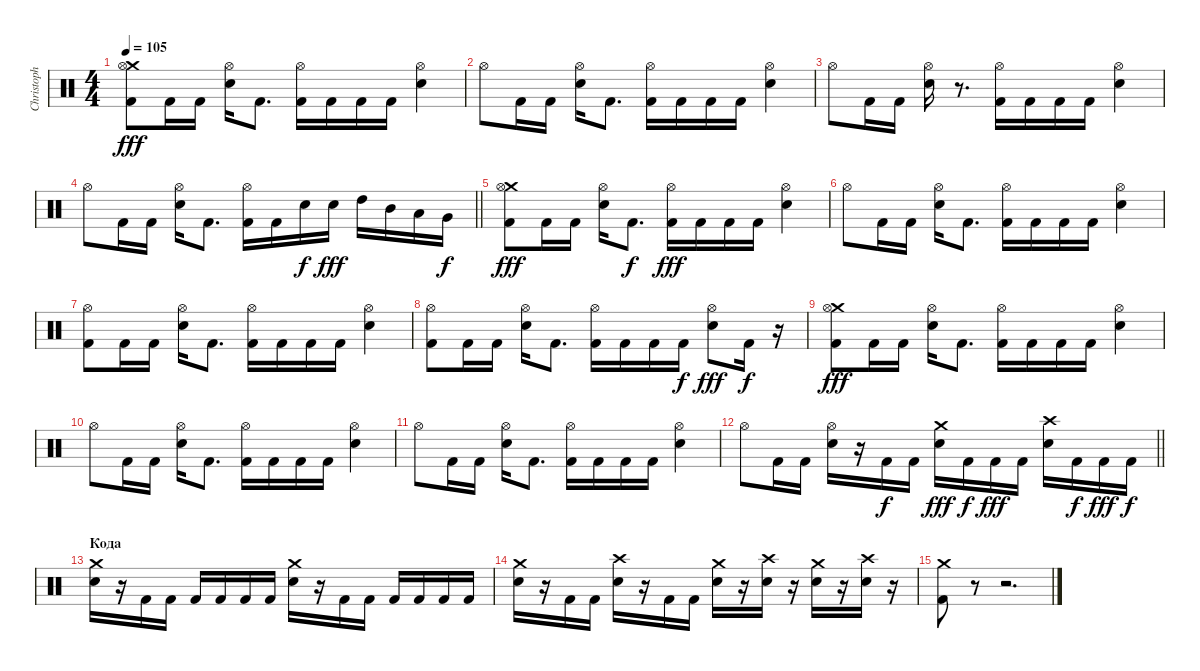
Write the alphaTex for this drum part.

\track ("Christoph Schneider" "Christoph ") {instrument percussion}
\staff {score}
\articulation defaults
\ts (4 4)
\tempo 105
\clef neutral
\ks c
("Crash medium (hit)" "Kick (hit) 2" "Hi-Hat (open)").8{dy fff} "Kick (hit) 2".16 "Kick (hit) 2".16 ("Hi-Hat (open)" "Electric Snare (hit)").16 "Kick (hit) 2".8{d} ("Hi-Hat (open)" "Kick (hit) 2").16 "Kick (hit) 2".16 "Kick (hit) 2".16 "Kick (hit) 2".16 ("Hi-Hat (open)" "Electric Snare (hit)").4 |
"Hi-Hat (open)".8 "Kick (hit) 2".16 "Kick (hit) 2".16 ("Hi-Hat (open)" "Electric Snare (hit)").16 "Kick (hit) 2".8{d} ("Hi-Hat (open)" "Kick (hit) 2").16 "Kick (hit) 2".16 "Kick (hit) 2".16 "Kick (hit) 2".16 ("Hi-Hat (open)" "Electric Snare (hit)").4 |
"Hi-Hat (open)".8 "Kick (hit) 2".16 "Kick (hit) 2".16 ("Hi-Hat (open)" "Electric Snare (hit)").16 r.8{d} ("Hi-Hat (open)" "Kick (hit) 2").16 "Kick (hit) 2".16 "Kick (hit) 2".16 "Kick (hit) 2".16 ("Hi-Hat (open)" "Electric Snare (hit)").4 |
\barLineRight lightlight "Hi-Hat (open)".8 "Kick (hit) 2".16 "Kick (hit) 2".16
("Hi-Hat (open)" "Electric Snare (hit)").16 "Kick (hit) 2".8{d} ("Hi-Hat (open)" "Kick (hit) 2").16 "Kick (hit) 2".16 "Electric Snare (hit)".16{dy f} "Electric Snare (hit)".16{dy fff} "High Tom (hit)".16 "Mid Tom (hit)".16 "Low Tom (hit)".16 "Very Low Tom (hit)".16{dy f} |
("Crash medium (hit)" "Kick (hit) 2" "Hi-Hat (open)").8{dy fff} "Kick (hit) 2".16 "Kick (hit) 2".16 ("Hi-Hat (open)" "Electric Snare (hit)").16 "Kick (hit) 2".8{d dy f} ("Hi-Hat (open)" "Kick (hit) 2").16{dy fff} "Kick (hit) 2".16 "Kick (hit) 2".16 "Kick (hit) 2".16 ("Hi-Hat (open)" "Electric Snare (hit)").4 |
"Hi-Hat (open)".8 "Kick (hit) 2".16 "Kick (hit) 2".16 ("Hi-Hat (open)" "Electric Snare (hit)").16 "Kick (hit) 2".8{d} ("Hi-Hat (open)" "Kick (hit) 2").16 "Kick (hit) 2".16 "Kick (hit) 2".16 "Kick (hit) 2".16 ("Hi-Hat (open)" "Electric Snare (hit)").4 |
("Kick (hit) 2" "Hi-Hat (open)").8 "Kick (hit) 2".16 "Kick (hit) 2".16 ("Hi-Hat (open)" "Electric Snare (hit)").16 "Kick (hit) 2".8{d} ("Hi-Hat (open)" "Kick (hit) 2").16 "Kick (hit) 2".16 "Kick (hit) 2".16 "Kick (hit) 2".16 ("Hi-Hat (open)" "Electric Snare (hit)").4 |
("Kick (hit) 2" "Hi-Hat (open)").8 "Kick (hit) 2".16 "Kick (hit) 2".16 ("Hi-Hat (open)" "Electric Snare (hit)").16 "Kick (hit) 2".8{d} ("Hi-Hat (open)" "Kick (hit) 2").16 "Kick (hit) 2".16 "Kick (hit) 2".16 "Kick (hit) 2".16{dy f} ("Hi-Hat (open)" "Electric Snare (hit)").8{dy fff} "Kick (hit) 2".16{dy f} r.16 |
("Crash medium (hit)" "Kick (hit) 2" "Hi-Hat (open)").8{dy fff} "Kick (hit) 2".16 "Kick (hit) 2".16 ("Hi-Hat (open)" "Electric Snare (hit)").16 "Kick (hit) 2".8{d} ("Hi-Hat (open)" "Kick (hit) 2").16 "Kick (hit) 2".16 "Kick (hit) 2".16 "Kick (hit) 2".16 ("Hi-Hat (open)" "Electric Snare (hit)").4 |
"Hi-Hat (open)".8 "Kick (hit) 2".16 "Kick (hit) 2".16 ("Hi-Hat (open)" "Electric Snare (hit)").16 "Kick (hit) 2".8{d} ("Hi-Hat (open)" "Kick (hit) 2").16 "Kick (hit) 2".16 "Kick (hit) 2".16 "Kick (hit) 2".16 ("Hi-Hat (open)" "Electric Snare (hit)").4 |
"Hi-Hat (open)".8 "Kick (hit) 2".16 "Kick (hit) 2".16 ("Hi-Hat (open)" "Electric Snare (hit)").16 "Kick (hit) 2".8{d} ("Hi-Hat (open)" "Kick (hit) 2").16 "Kick (hit) 2".16 "Kick (hit) 2".16 "Kick (hit) 2".16 ("Hi-Hat (open)" "Electric Snare (hit)").4 |
\barLineRight lightlight "Hi-Hat (open)".8 "Kick (hit) 2".16 "Kick (hit) 2".16
("Hi-Hat (open)" "Electric Snare (hit)").16 r.16 "Kick (hit) 2".16{dy f} "Kick (hit) 2".16 ("Crash medium (hit)" "Electric Snare (hit)").16{dy fff} "Kick (hit) 2".16{dy f} "Kick (hit) 2".16{dy fff} "Kick (hit) 2".16 ("Crash high (hit)" "Electric Snare (hit)").16 "Kick (hit) 2".16{dy f} "Kick (hit) 2".16{dy fff} "Kick (hit) 2".16{dy f} |
\section ("" "Кода")
("Crash medium (hit)" "Electric Snare (hit)").16 r.16 "Kick (hit) 2".16 "Kick (hit) 2".16 "Kick (hit) 2".16 "Kick (hit) 2".16 "Kick (hit) 2".16 "Kick (hit) 2".16 ("Crash medium (hit)" "Electric Snare (hit)").16 r.16 "Kick (hit) 2".16 "Kick (hit) 2".16 "Kick (hit) 2".16 "Kick (hit) 2".16 "Kick (hit) 2".16 "Kick (hit) 2".16 |
("Crash medium (hit)" "Electric Snare (hit)").16 r.16 "Kick (hit) 2".16 "Kick (hit) 2".16 ("Crash high (hit)" "Electric Snare (hit)").16 r.16 "Kick (hit) 2".16 "Kick (hit) 2".16 ("Crash medium (hit)" "Electric Snare (hit)").16 r.16 ("Crash high (hit)" "Electric Snare (hit)").16 r.16 ("Crash medium (hit)" "Electric Snare (hit)").16 r.16 ("Crash high (hit)" "Electric Snare (hit)").16 r.16 |
("Crash medium (hit)" "Kick (hit) 2").8 r.8 r.2{d}
